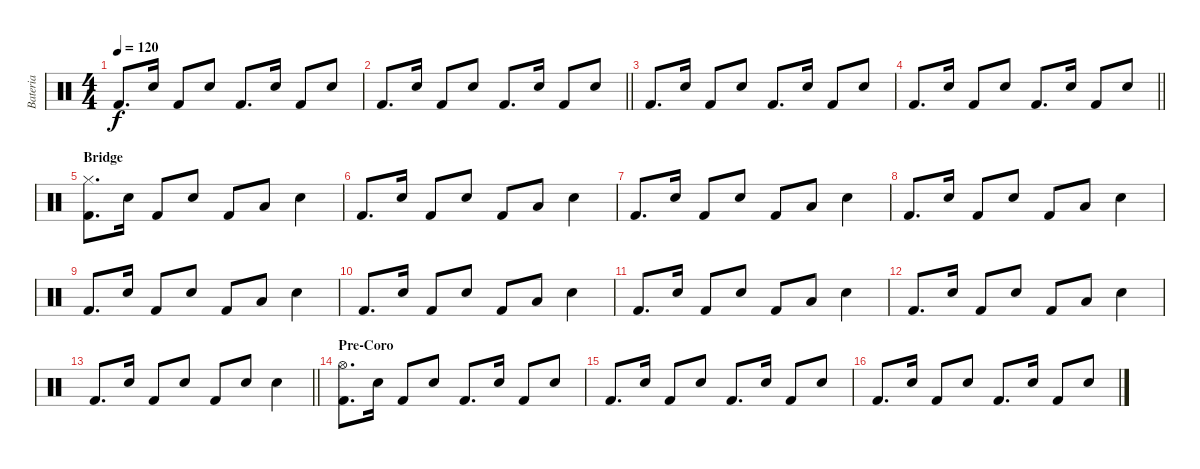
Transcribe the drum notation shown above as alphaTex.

\track ("Bateria" "Bateria") {instrument percussion}
\staff {score}
\articulation defaults
\ts (4 4)
\tempo 120
\clef neutral
\ks c "Kick (hit) 2".8{d dy f} "Snare (hit) 2".16 "Kick (hit) 2".8 "Snare (hit) 2".8 "Kick (hit) 2".8{d} "Snare (hit) 2".16 "Kick (hit) 2".8 "Snare (hit) 2".8
|
\barLineRight lightlight "Kick (hit) 2".8{d} "Snare (hit) 2".16 "Kick (hit) 2".8 "Snare (hit) 2".8 "Kick (hit) 2".8{d} "Snare (hit) 2".16 "Kick (hit) 2".8 "Snare (hit) 2".8
|
"Kick (hit) 2".8{d} "Snare (hit) 2".16 "Kick (hit) 2".8 "Snare (hit) 2".8 "Kick (hit) 2".8{d} "Snare (hit) 2".16 "Kick (hit) 2".8 "Snare (hit) 2".8 |
\barLineRight lightlight "Kick (hit) 2".8{d} "Snare (hit) 2".16 "Kick (hit) 2".8 "Snare (hit) 2".8 "Kick (hit) 2".8{d} "Snare (hit) 2".16 "Kick (hit) 2".8 "Snare (hit) 2".8
|
\section ("" "Bridge")
("Hi-Hat (closed)" "Kick (hit) 2").8{d} "Snare (hit) 2".16 "Kick (hit) 2".8 "Snare (hit) 2".8 "Kick (hit) 2".8 "Low Tom (hit)".8 "Snare (hit) 2".4 |
"Kick (hit) 2".8{d} "Snare (hit) 2".16 "Kick (hit) 2".8 "Snare (hit) 2".8 "Kick (hit) 2".8 "Low Tom (hit)".8 "Snare (hit) 2".4 |
"Kick (hit) 2".8{d} "Snare (hit) 2".16 "Kick (hit) 2".8 "Snare (hit) 2".8 "Kick (hit) 2".8 "Low Tom (hit)".8 "Snare (hit) 2".4 |
"Kick (hit) 2".8{d} "Snare (hit) 2".16 "Kick (hit) 2".8 "Snare (hit) 2".8 "Kick (hit) 2".8 "Low Tom (hit)".8 "Snare (hit) 2".4 |
"Kick (hit) 2".8{d} "Snare (hit) 2".16 "Kick (hit) 2".8 "Snare (hit) 2".8 "Kick (hit) 2".8 "Low Tom (hit)".8 "Snare (hit) 2".4 |
"Kick (hit) 2".8{d} "Snare (hit) 2".16 "Kick (hit) 2".8 "Snare (hit) 2".8 "Kick (hit) 2".8 "Low Tom (hit)".8 "Snare (hit) 2".4 |
"Kick (hit) 2".8{d} "Snare (hit) 2".16 "Kick (hit) 2".8 "Snare (hit) 2".8 "Kick (hit) 2".8 "Low Tom (hit)".8 "Snare (hit) 2".4 |
"Kick (hit) 2".8{d} "Snare (hit) 2".16 "Kick (hit) 2".8 "Snare (hit) 2".8 "Kick (hit) 2".8 "Low Tom (hit)".8 "Snare (hit) 2".4 |
\barLineRight lightlight "Kick (hit) 2".8{d} "Snare (hit) 2".16 "Kick (hit) 2".8 "Snare (hit) 2".8 "Kick (hit) 2".8 "Hand Clap (hit)".8 "Hand Clap (hit)".4
|
\section ("" "Pre-Coro")
("Hi-Hat (open)" "Kick (hit) 2").8{d} "Snare (hit) 2".16 "Kick (hit) 2".8 "Snare (hit) 2".8 "Kick (hit) 2".8{d} "Snare (hit) 2".16 "Kick (hit) 2".8 "Snare (hit) 2".8 |
"Kick (hit) 2".8{d} "Snare (hit) 2".16 "Kick (hit) 2".8 "Snare (hit) 2".8 "Kick (hit) 2".8{d} "Snare (hit) 2".16 "Kick (hit) 2".8 "Snare (hit) 2".8 |
"Kick (hit) 2".8{d} "Snare (hit) 2".16 "Kick (hit) 2".8 "Snare (hit) 2".8 "Kick (hit) 2".8{d} "Snare (hit) 2".16 "Kick (hit) 2".8 "Snare (hit) 2".8
